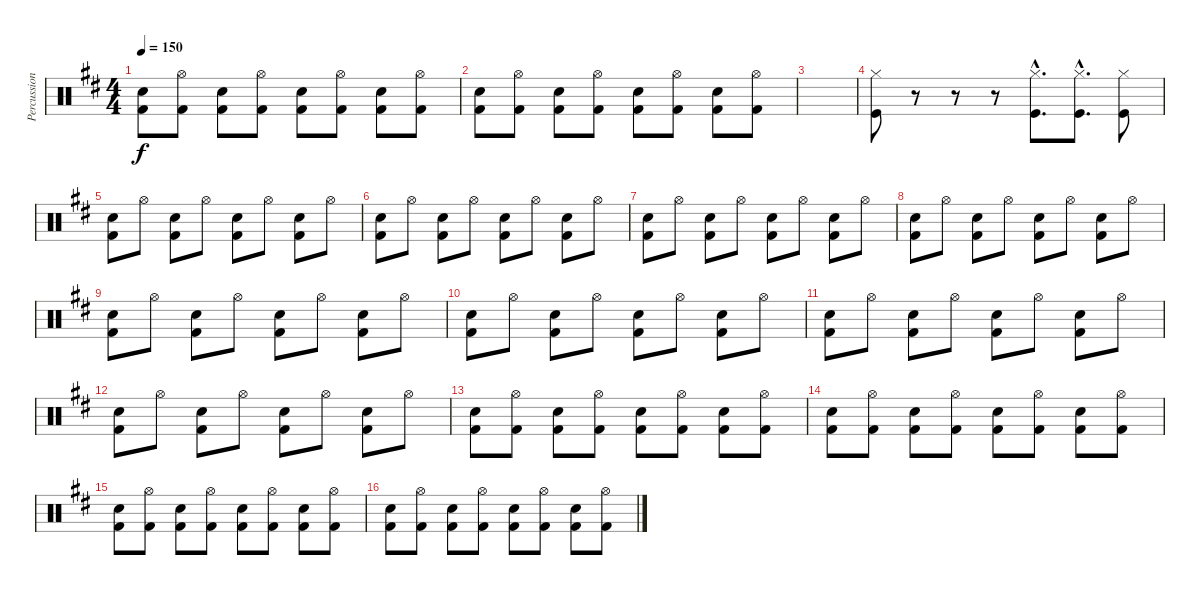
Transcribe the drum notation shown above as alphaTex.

\track ("Percussion" "Percussion") {instrument percussion}
\staff {score}
\articulation defaults
\ts (4 4)
\tempo 150
\clef neutral
\ks d
("Kick (hit) 2" "Snare (hit) 2").8{dy f} ("Kick (hit) 2" "Hi-Hat (open)").8 ("Kick (hit) 2" "Snare (hit) 2").8 ("Kick (hit) 2" "Hi-Hat (open)").8 ("Kick (hit) 2" "Snare (hit) 2").8 ("Kick (hit) 2" "Hi-Hat (open)").8 ("Kick (hit) 2" "Snare (hit) 2").8 ("Kick (hit) 2" "Hi-Hat (open)").8 |
("Kick (hit) 2" "Snare (hit) 2").8 ("Kick (hit) 2" "Hi-Hat (open)").8 ("Kick (hit) 2" "Snare (hit) 2").8 ("Kick (hit) 2" "Hi-Hat (open)").8 ("Kick (hit) 2" "Snare (hit) 2").8 ("Kick (hit) 2" "Hi-Hat (open)").8 ("Kick (hit) 2" "Snare (hit) 2").8 ("Kick (hit) 2" "Hi-Hat (open)").8 |
|
("Hi-Hat (closed)" "Kick (hit)").8 r.8 r.8 r.8 ("Hi-Hat (closed)"{hac} "Kick (hit)"{hac}).8{d} ("Hi-Hat (closed)"{hac} "Kick (hit)"{hac}).8{d} ("Hi-Hat (closed)" "Kick (hit)").8 |
("Kick (hit) 2" "Snare (hit) 2").8 "Hi-Hat (open)".8 ("Kick (hit) 2" "Snare (hit) 2").8 "Hi-Hat (open)".8 ("Kick (hit) 2" "Snare (hit) 2").8 "Hi-Hat (open)".8 ("Kick (hit) 2" "Snare (hit) 2").8 "Hi-Hat (open)".8 |
("Kick (hit) 2" "Snare (hit) 2").8 "Hi-Hat (open)".8 ("Kick (hit) 2" "Snare (hit) 2").8 "Hi-Hat (open)".8 ("Kick (hit) 2" "Snare (hit) 2").8 "Hi-Hat (open)".8 ("Kick (hit) 2" "Snare (hit) 2").8 "Hi-Hat (open)".8 |
("Kick (hit) 2" "Snare (hit) 2").8 "Hi-Hat (open)".8 ("Kick (hit) 2" "Snare (hit) 2").8 "Hi-Hat (open)".8 ("Kick (hit) 2" "Snare (hit) 2").8 "Hi-Hat (open)".8 ("Kick (hit) 2" "Snare (hit) 2").8 "Hi-Hat (open)".8 |
("Kick (hit) 2" "Snare (hit) 2").8 "Hi-Hat (open)".8 ("Kick (hit) 2" "Snare (hit) 2").8 "Hi-Hat (open)".8 ("Kick (hit) 2" "Snare (hit) 2").8 "Hi-Hat (open)".8 ("Kick (hit) 2" "Snare (hit) 2").8 "Hi-Hat (open)".8 |
("Kick (hit) 2" "Snare (hit) 2").8 "Hi-Hat (open)".8 ("Kick (hit) 2" "Snare (hit) 2").8 "Hi-Hat (open)".8 ("Kick (hit) 2" "Snare (hit) 2").8 "Hi-Hat (open)".8 ("Kick (hit) 2" "Snare (hit) 2").8 "Hi-Hat (open)".8 |
("Kick (hit) 2" "Snare (hit) 2").8 "Hi-Hat (open)".8 ("Kick (hit) 2" "Snare (hit) 2").8 "Hi-Hat (open)".8 ("Kick (hit) 2" "Snare (hit) 2").8 "Hi-Hat (open)".8 ("Kick (hit) 2" "Snare (hit) 2").8 "Hi-Hat (open)".8 |
("Kick (hit) 2" "Snare (hit) 2").8 "Hi-Hat (open)".8 ("Kick (hit) 2" "Snare (hit) 2").8 "Hi-Hat (open)".8 ("Kick (hit) 2" "Snare (hit) 2").8 "Hi-Hat (open)".8 ("Kick (hit) 2" "Snare (hit) 2").8 "Hi-Hat (open)".8 |
("Kick (hit) 2" "Snare (hit) 2").8 "Hi-Hat (open)".8 ("Kick (hit) 2" "Snare (hit) 2").8 "Hi-Hat (open)".8 ("Kick (hit) 2" "Snare (hit) 2").8 "Hi-Hat (open)".8 ("Kick (hit) 2" "Snare (hit) 2").8 "Hi-Hat (open)".8 |
("Kick (hit) 2" "Snare (hit) 2").8 ("Kick (hit) 2" "Hi-Hat (open)").8 ("Kick (hit) 2" "Snare (hit) 2").8 ("Kick (hit) 2" "Hi-Hat (open)").8 ("Kick (hit) 2" "Snare (hit) 2").8 ("Kick (hit) 2" "Hi-Hat (open)").8 ("Kick (hit) 2" "Snare (hit) 2").8 ("Kick (hit) 2" "Hi-Hat (open)").8 |
("Kick (hit) 2" "Snare (hit) 2").8 ("Kick (hit) 2" "Hi-Hat (open)").8 ("Kick (hit) 2" "Snare (hit) 2").8 ("Kick (hit) 2" "Hi-Hat (open)").8 ("Kick (hit) 2" "Snare (hit) 2").8 ("Kick (hit) 2" "Hi-Hat (open)").8 ("Kick (hit) 2" "Snare (hit) 2").8 ("Kick (hit) 2" "Hi-Hat (open)").8 |
("Kick (hit) 2" "Snare (hit) 2").8 ("Kick (hit) 2" "Hi-Hat (open)").8 ("Kick (hit) 2" "Snare (hit) 2").8 ("Kick (hit) 2" "Hi-Hat (open)").8 ("Kick (hit) 2" "Snare (hit) 2").8 ("Kick (hit) 2" "Hi-Hat (open)").8 ("Kick (hit) 2" "Snare (hit) 2").8 ("Kick (hit) 2" "Hi-Hat (open)").8 |
("Kick (hit) 2" "Snare (hit) 2").8 ("Kick (hit) 2" "Hi-Hat (open)").8 ("Kick (hit) 2" "Snare (hit) 2").8 ("Kick (hit) 2" "Hi-Hat (open)").8 ("Kick (hit) 2" "Snare (hit) 2").8 ("Kick (hit) 2" "Hi-Hat (open)").8 ("Kick (hit) 2" "Snare (hit) 2").8 ("Kick (hit) 2" "Hi-Hat (open)").8
